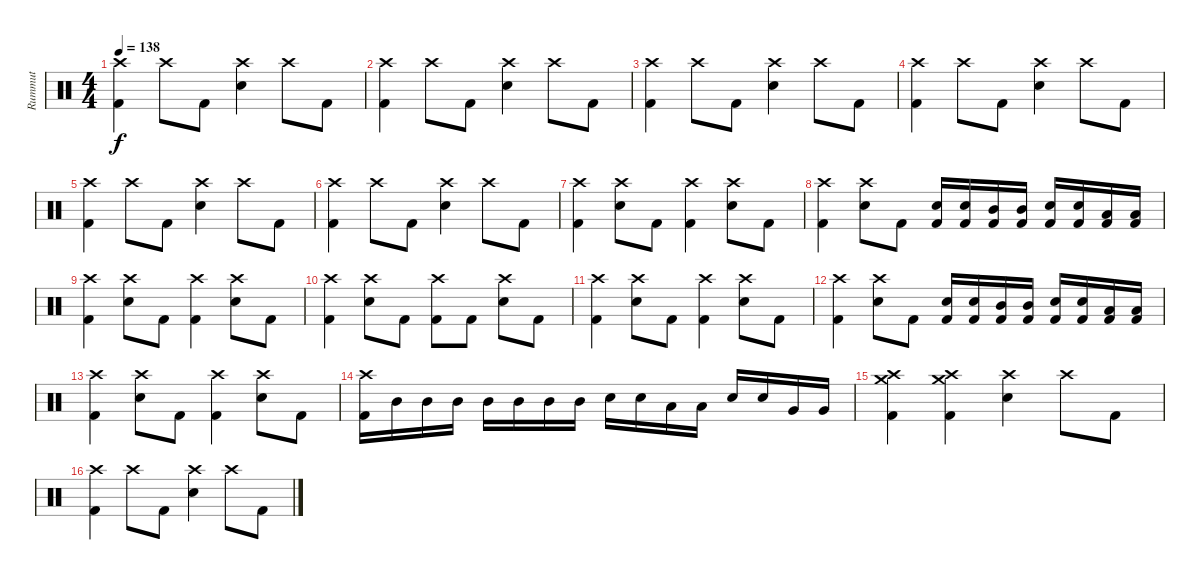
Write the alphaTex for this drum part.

\track ("Rummut" "Rummut") {instrument percussion}
\staff {score}
\articulation defaults
\ts (4 4)
\tempo 138
\clef neutral
\ks c
("Crash high (hit)" "Kick (hit) 2").4{dy f} "Crash high (hit)".8 "Kick (hit) 2".8 ("Crash high (hit)" "Snare (hit) 2").4 "Crash high (hit)".8 "Kick (hit) 2".8 |
("Crash high (hit)" "Kick (hit) 2").4 "Crash high (hit)".8 "Kick (hit) 2".8 ("Crash high (hit)" "Snare (hit) 2").4 "Crash high (hit)".8 "Kick (hit) 2".8 |
("Crash high (hit)" "Kick (hit) 2").4 "Crash high (hit)".8 "Kick (hit) 2".8 ("Crash high (hit)" "Snare (hit) 2").4 "Crash high (hit)".8 "Kick (hit) 2".8 |
("Crash high (hit)" "Kick (hit) 2").4 "Crash high (hit)".8 "Kick (hit) 2".8 ("Crash high (hit)" "Snare (hit) 2").4 "Crash high (hit)".8 "Kick (hit) 2".8 |
("Crash high (hit)" "Kick (hit) 2").4 "Crash high (hit)".8 "Kick (hit) 2".8 ("Crash high (hit)" "Snare (hit) 2").4 "Crash high (hit)".8 "Kick (hit) 2".8 |
("Crash high (hit)" "Kick (hit) 2").4 "Crash high (hit)".8 "Kick (hit) 2".8 ("Crash high (hit)" "Snare (hit) 2").4 "Crash high (hit)".8 "Kick (hit) 2".8 |
("Crash high (hit)" "Kick (hit) 2").4 ("Crash high (hit)" "Snare (hit) 2").8 "Kick (hit) 2".8 ("Crash high (hit)" "Kick (hit) 2").4 ("Crash high (hit)" "Snare (hit) 2").8 "Kick (hit) 2".8 |
("Crash high (hit)" "Kick (hit) 2").4 ("Crash high (hit)" "Snare (hit) 2").8 "Kick (hit) 2".8 ("Snare (hit) 2" "Kick (hit) 2").16 ("Snare (hit) 2" "Kick (hit) 2").16 ("Mid Tom (hit)" "Kick (hit) 2").16 ("Mid Tom (hit)" "Kick (hit) 2").16 ("Snare (hit) 2" "Kick (hit) 2").16 ("Snare (hit) 2" "Kick (hit) 2").16 ("Low Tom (hit)" "Kick (hit) 2").16 ("Low Tom (hit)" "Kick (hit) 2").16 |
("Crash high (hit)" "Kick (hit) 2").4 ("Crash high (hit)" "Snare (hit) 2").8 "Kick (hit) 2".8 ("Crash high (hit)" "Kick (hit) 2").4 ("Crash high (hit)" "Snare (hit) 2").8 "Kick (hit) 2".8 |
("Crash high (hit)" "Kick (hit) 2").4 ("Crash high (hit)" "Snare (hit) 2").8 "Kick (hit) 2".8 ("Crash high (hit)" "Kick (hit) 2").8 "Kick (hit) 2".8 ("Crash high (hit)" "Snare (hit) 2").8 "Kick (hit) 2".8 |
("Crash high (hit)" "Kick (hit) 2").4 ("Crash high (hit)" "Snare (hit) 2").8 "Kick (hit) 2".8 ("Crash high (hit)" "Kick (hit) 2").4 ("Crash high (hit)" "Snare (hit) 2").8 "Kick (hit) 2".8 |
("Crash high (hit)" "Kick (hit) 2").4 ("Crash high (hit)" "Snare (hit) 2").8 "Kick (hit) 2".8 ("Snare (hit) 2" "Kick (hit) 2").16 ("Snare (hit) 2" "Kick (hit) 2").16 ("Mid Tom (hit)" "Kick (hit) 2").16 ("Mid Tom (hit)" "Kick (hit) 2").16 ("Snare (hit) 2" "Kick (hit) 2").16 ("Snare (hit) 2" "Kick (hit) 2").16 ("Low Tom (hit)" "Kick (hit) 2").16 ("Low Tom (hit)" "Kick (hit) 2").16 |
("Crash high (hit)" "Kick (hit) 2").4 ("Crash high (hit)" "Snare (hit) 2").8 "Kick (hit) 2".8 ("Crash high (hit)" "Kick (hit) 2").4 ("Crash high (hit)" "Snare (hit) 2").8 "Kick (hit) 2".8 |
("Crash high (hit)" "Kick (hit) 2").16 "Mid Tom (hit)".16 "Mid Tom (hit)".16 "Mid Tom (hit)".16 "Mid Tom (hit)".16 "Mid Tom (hit)".16 "Mid Tom (hit)".16 "Mid Tom (hit)".16 "Snare (hit) 2".16 "Snare (hit) 2".16 "Low Tom (hit)".16 "Low Tom (hit)".16 "Snare (hit) 2".16 "Snare (hit) 2".16 "Very Low Tom (hit)".16 "Very Low Tom (hit)".16 |
("Crash high (hit)" "Crash medium (hit)" "Kick (hit) 2").4 ("Crash high (hit)" "Crash medium (hit)" "Kick (hit) 2").4 ("Crash high (hit)" "Snare (hit) 2").4 "Crash high (hit)".8 "Kick (hit) 2".8 |
("Crash high (hit)" "Kick (hit) 2").4 "Crash high (hit)".8 "Kick (hit) 2".8 ("Crash high (hit)" "Snare (hit) 2").4 "Crash high (hit)".8 "Kick (hit) 2".8
